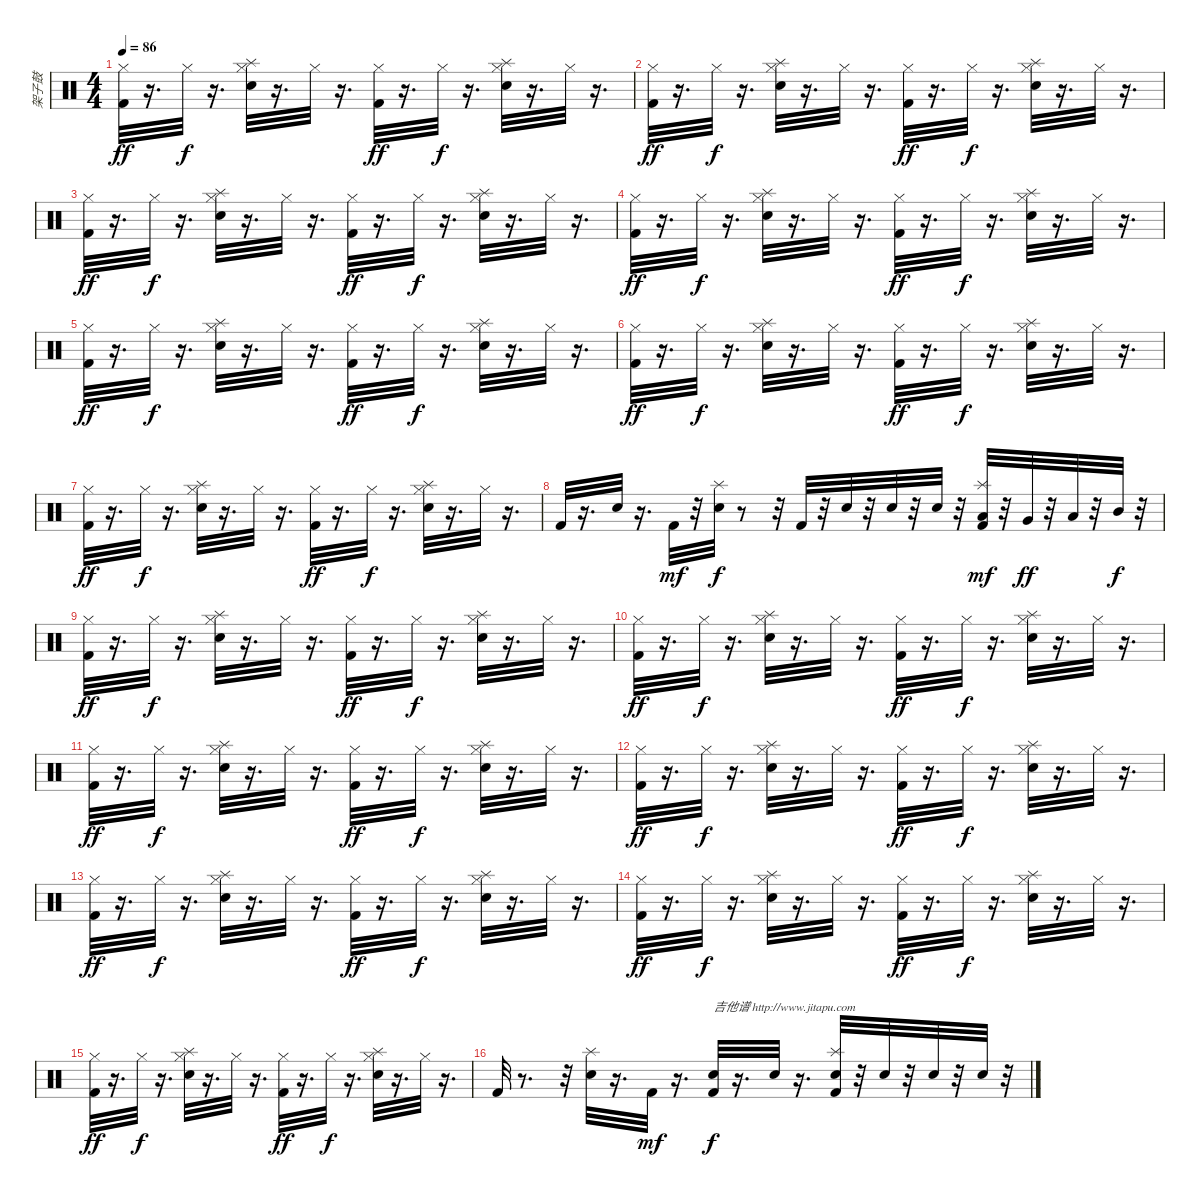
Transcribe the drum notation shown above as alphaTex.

\track ("架子鼓" "架子鼓") {instrument percussion}
\staff {score}
\articulation defaults
\ts (4 4)
\tempo 86
\clef neutral
\ks c
("Hi-Hat (closed)" "Kick (hit) 2").32{dy ff} r.16{d} "Hi-Hat (closed)".32{dy f} r.16{d} ("Splash (hit)" "Hi-Hat (closed)" "Electric Snare (hit)").32 r.16{d} "Hi-Hat (closed)".32 r.16{d} ("Hi-Hat (closed)" "Kick (hit) 2").32{dy ff} r.16{d} "Hi-Hat (closed)".32{dy f} r.16{d} ("Splash (hit)" "Hi-Hat (closed)" "Electric Snare (hit)").32 r.16{d} "Hi-Hat (closed)".32 r.16{d} |
("Hi-Hat (closed)" "Kick (hit) 2").32{dy ff} r.16{d} "Hi-Hat (closed)".32{dy f} r.16{d} ("Splash (hit)" "Hi-Hat (closed)" "Electric Snare (hit)").32 r.16{d} "Hi-Hat (closed)".32 r.16{d} ("Hi-Hat (closed)" "Kick (hit) 2").32{dy ff} r.16{d} "Hi-Hat (closed)".32{dy f} r.16{d} ("Splash (hit)" "Hi-Hat (closed)" "Electric Snare (hit)").32 r.16{d} "Hi-Hat (closed)".32 r.16{d} |
("Hi-Hat (closed)" "Kick (hit) 2").32{dy ff} r.16{d} "Hi-Hat (closed)".32{dy f} r.16{d} ("Splash (hit)" "Hi-Hat (closed)" "Electric Snare (hit)").32 r.16{d} "Hi-Hat (closed)".32 r.16{d} ("Hi-Hat (closed)" "Kick (hit) 2").32{dy ff} r.16{d} "Hi-Hat (closed)".32{dy f} r.16{d} ("Splash (hit)" "Hi-Hat (closed)" "Electric Snare (hit)").32 r.16{d} "Hi-Hat (closed)".32 r.16{d} |
("Hi-Hat (closed)" "Kick (hit) 2").32{dy ff} r.16{d} "Hi-Hat (closed)".32{dy f} r.16{d} ("Splash (hit)" "Hi-Hat (closed)" "Electric Snare (hit)").32 r.16{d} "Hi-Hat (closed)".32 r.16{d} ("Hi-Hat (closed)" "Kick (hit) 2").32{dy ff} r.16{d} "Hi-Hat (closed)".32{dy f} r.16{d} ("Splash (hit)" "Hi-Hat (closed)" "Electric Snare (hit)").32 r.16{d} "Hi-Hat (closed)".32 r.16{d} |
("Hi-Hat (closed)" "Kick (hit) 2").32{dy ff} r.16{d} "Hi-Hat (closed)".32{dy f} r.16{d} ("Splash (hit)" "Hi-Hat (closed)" "Electric Snare (hit)").32 r.16{d} "Hi-Hat (closed)".32 r.16{d} ("Hi-Hat (closed)" "Kick (hit) 2").32{dy ff} r.16{d} "Hi-Hat (closed)".32{dy f} r.16{d} ("Splash (hit)" "Hi-Hat (closed)" "Electric Snare (hit)").32 r.16{d} "Hi-Hat (closed)".32 r.16{d} |
("Hi-Hat (closed)" "Kick (hit) 2").32{dy ff} r.16{d} "Hi-Hat (closed)".32{dy f} r.16{d} ("Splash (hit)" "Hi-Hat (closed)" "Electric Snare (hit)").32 r.16{d} "Hi-Hat (closed)".32 r.16{d} ("Hi-Hat (closed)" "Kick (hit) 2").32{dy ff} r.16{d} "Hi-Hat (closed)".32{dy f} r.16{d} ("Splash (hit)" "Hi-Hat (closed)" "Electric Snare (hit)").32 r.16{d} "Hi-Hat (closed)".32 r.16{d} |
("Hi-Hat (closed)" "Kick (hit) 2").32{dy ff} r.16{d} "Hi-Hat (closed)".32{dy f} r.16{d} ("Splash (hit)" "Hi-Hat (closed)" "Electric Snare (hit)").32 r.16{d} "Hi-Hat (closed)".32 r.16{d} ("Hi-Hat (closed)" "Kick (hit) 2").32{dy ff} r.16{d} "Hi-Hat (closed)".32{dy f} r.16{d} ("Splash (hit)" "Hi-Hat (closed)" "Electric Snare (hit)").32 r.16{d} "Hi-Hat (closed)".32 r.16{d} |
"Kick (hit) 2".32 r.16{d} "Electric Snare (hit)".32 r.16{d} "Kick (hit) 2".32{dy mf} r.32 ("Splash (hit)" "Electric Snare (hit)").32{dy f} r.8 r.32 "Kick (hit) 2".32 r.32 "Electric Snare (hit)".32 r.32 "Electric Snare (hit)".32 r.32 "Electric Snare (hit)".32 r.32 ("Splash (hit)" "Low Floor Tom (hit)" "Kick (hit) 2").32{dy mf} r.32 "Very Low Tom (hit)".32{dy ff} r.32 "Low Tom (hit)".32 r.32 "Mid Tom (hit)".32{dy f} r.32 |
("Hi-Hat (closed)" "Kick (hit) 2").32{dy ff} r.16{d} "Hi-Hat (closed)".32{dy f} r.16{d} ("Splash (hit)" "Hi-Hat (closed)" "Electric Snare (hit)").32 r.16{d} "Hi-Hat (closed)".32 r.16{d} ("Hi-Hat (closed)" "Kick (hit) 2").32{dy ff} r.16{d} "Hi-Hat (closed)".32{dy f} r.16{d} ("Splash (hit)" "Hi-Hat (closed)" "Electric Snare (hit)").32 r.16{d} "Hi-Hat (closed)".32 r.16{d} |
("Hi-Hat (closed)" "Kick (hit) 2").32{dy ff} r.16{d} "Hi-Hat (closed)".32{dy f} r.16{d} ("Splash (hit)" "Hi-Hat (closed)" "Electric Snare (hit)").32 r.16{d} "Hi-Hat (closed)".32 r.16{d} ("Hi-Hat (closed)" "Kick (hit) 2").32{dy ff} r.16{d} "Hi-Hat (closed)".32{dy f} r.16{d} ("Splash (hit)" "Hi-Hat (closed)" "Electric Snare (hit)").32 r.16{d} "Hi-Hat (closed)".32 r.16{d} |
("Hi-Hat (closed)" "Kick (hit) 2").32{dy ff} r.16{d} "Hi-Hat (closed)".32{dy f} r.16{d} ("Splash (hit)" "Hi-Hat (closed)" "Electric Snare (hit)").32 r.16{d} "Hi-Hat (closed)".32 r.16{d} ("Hi-Hat (closed)" "Kick (hit) 2").32{dy ff} r.16{d} "Hi-Hat (closed)".32{dy f} r.16{d} ("Splash (hit)" "Hi-Hat (closed)" "Electric Snare (hit)").32 r.16{d} "Hi-Hat (closed)".32 r.16{d} |
("Hi-Hat (closed)" "Kick (hit) 2").32{dy ff} r.16{d} "Hi-Hat (closed)".32{dy f} r.16{d} ("Splash (hit)" "Hi-Hat (closed)" "Electric Snare (hit)").32 r.16{d} "Hi-Hat (closed)".32 r.16{d} ("Hi-Hat (closed)" "Kick (hit) 2").32{dy ff} r.16{d} "Hi-Hat (closed)".32{dy f} r.16{d} ("Splash (hit)" "Hi-Hat (closed)" "Electric Snare (hit)").32 r.16{d} "Hi-Hat (closed)".32 r.16{d} |
("Hi-Hat (closed)" "Kick (hit) 2").32{dy ff} r.16{d} "Hi-Hat (closed)".32{dy f} r.16{d} ("Splash (hit)" "Hi-Hat (closed)" "Electric Snare (hit)").32 r.16{d} "Hi-Hat (closed)".32 r.16{d} ("Hi-Hat (closed)" "Kick (hit) 2").32{dy ff} r.16{d} "Hi-Hat (closed)".32{dy f} r.16{d} ("Splash (hit)" "Hi-Hat (closed)" "Electric Snare (hit)").32 r.16{d} "Hi-Hat (closed)".32 r.16{d} |
("Hi-Hat (closed)" "Kick (hit) 2").32{dy ff} r.16{d} "Hi-Hat (closed)".32{dy f} r.16{d} ("Splash (hit)" "Hi-Hat (closed)" "Electric Snare (hit)").32 r.16{d} "Hi-Hat (closed)".32 r.16{d} ("Hi-Hat (closed)" "Kick (hit) 2").32{dy ff} r.16{d} "Hi-Hat (closed)".32{dy f} r.16{d} ("Splash (hit)" "Hi-Hat (closed)" "Electric Snare (hit)").32 r.16{d} "Hi-Hat (closed)".32 r.16{d} |
("Hi-Hat (closed)" "Kick (hit) 2").32{dy ff} r.16{d} "Hi-Hat (closed)".32{dy f} r.16{d} ("Splash (hit)" "Hi-Hat (closed)" "Electric Snare (hit)").32 r.16{d} "Hi-Hat (closed)".32 r.16{d} ("Hi-Hat (closed)" "Kick (hit) 2").32{dy ff} r.16{d} "Hi-Hat (closed)".32{dy f} r.16{d} ("Splash (hit)" "Hi-Hat (closed)" "Electric Snare (hit)").32 r.16{d} "Hi-Hat (closed)".32 r.16{d} |
"Kick (hit) 2".32 r.8{d} r.32 ("Splash (hit)" "Electric Snare (hit)").32 r.16{d} "Kick (hit) 2".32{dy mf} r.16{d} ("Electric Snare (hit)" "Kick (hit) 2").32{txt "吉他谱 http://www.jitapu.com" dy f} r.16{d} "Electric Snare (hit)".32 r.16{d} ("Splash (hit)" "Electric Snare (hit)" "Kick (hit) 2").32 r.32 "Electric Snare (hit)".32 r.32 "Electric Snare (hit)".32 r.32 "Electric Snare (hit)".32 r.32
